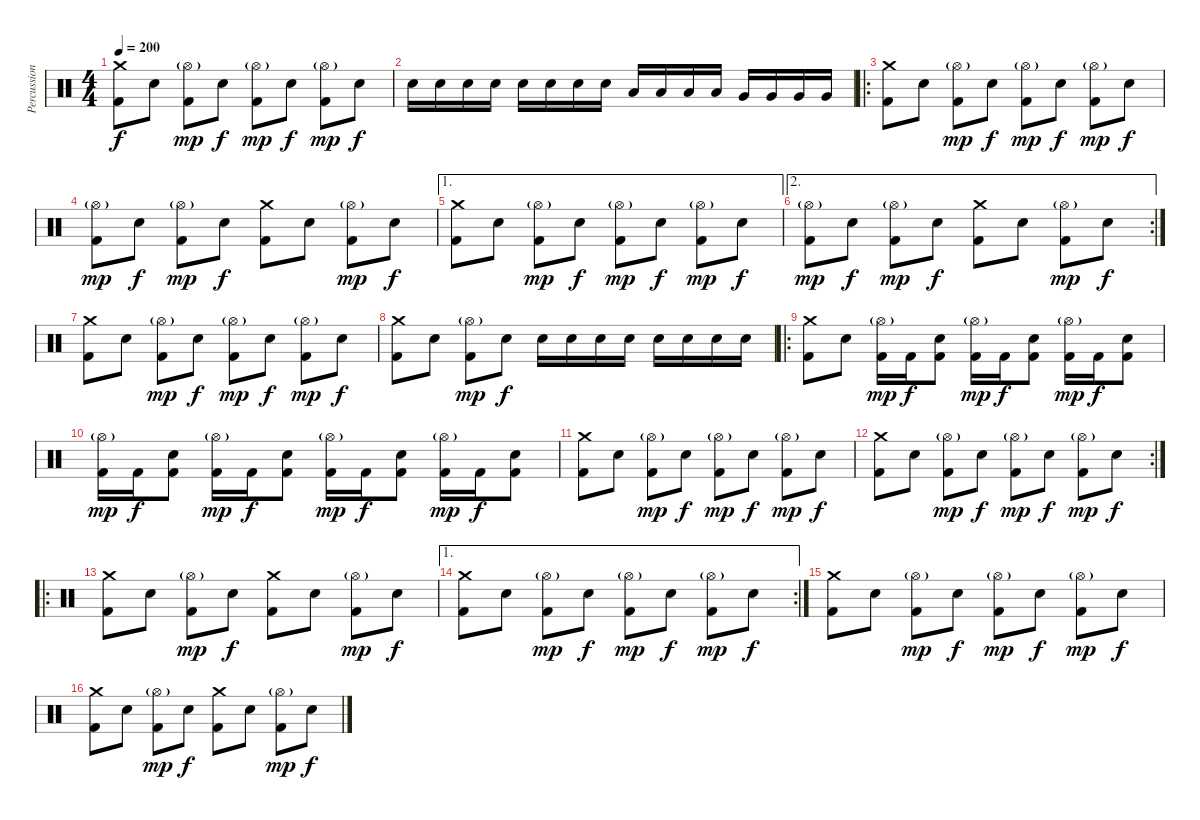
\track ("Percussion" "Percussion") {instrument percussion}
\staff {score}
\articulation defaults
\ts (4 4)
\tempo 200
\clef neutral
\ks c
("Crash medium (hit)" "Kick (hit) 2").8{dy f} "Electric Snare (hit)".8 ("Hi-Hat (open)"{g} "Kick (hit) 2").8{dy mp} "Electric Snare (hit)".8{dy f} ("Hi-Hat (open)"{g} "Kick (hit) 2").8{dy mp} "Electric Snare (hit)".8{dy f} ("Hi-Hat (open)"{g} "Kick (hit) 2").8{dy mp} "Electric Snare (hit)".8{dy f} |
"Electric Snare (hit)".16 "Electric Snare (hit)".16 "Electric Snare (hit)".16 "Electric Snare (hit)".16 "Electric Snare (hit)".16 "Electric Snare (hit)".16 "Electric Snare (hit)".16 "Electric Snare (hit)".16 "Low Tom (hit)".16 "Low Tom (hit)".16 "Low Tom (hit)".16 "Low Tom (hit)".16 "Very Low Tom (hit)".16 "Very Low Tom (hit)".16 "Very Low Tom (hit)".16 "Very Low Tom (hit)".16 |
\ro
("Crash medium (hit)" "Kick (hit) 2").8 "Electric Snare (hit)".8 ("Hi-Hat (open)"{g} "Kick (hit) 2").8{dy mp} "Electric Snare (hit)".8{dy f} ("Hi-Hat (open)"{g} "Kick (hit) 2").8{dy mp} "Electric Snare (hit)".8{dy f} ("Hi-Hat (open)"{g} "Kick (hit) 2").8{dy mp} "Electric Snare (hit)".8{dy f} |
("Hi-Hat (open)"{g} "Kick (hit) 2").8{dy mp} "Electric Snare (hit)".8{dy f} ("Hi-Hat (open)"{g} "Kick (hit) 2").8{dy mp} "Electric Snare (hit)".8{dy f} ("Crash medium (hit)" "Kick (hit) 2").8 "Electric Snare (hit)".8 ("Hi-Hat (open)"{g} "Kick (hit) 2").8{dy mp} "Electric Snare (hit)".8{dy f} |
\ae 1
("Crash medium (hit)" "Kick (hit) 2").8 "Electric Snare (hit)".8 ("Hi-Hat (open)"{g} "Kick (hit) 2").8{dy mp} "Electric Snare (hit)".8{dy f} ("Hi-Hat (open)"{g} "Kick (hit) 2").8{dy mp} "Electric Snare (hit)".8{dy f} ("Hi-Hat (open)"{g} "Kick (hit) 2").8{dy mp} "Electric Snare (hit)".8{dy f} |
\ae 2
\rc 2
("Hi-Hat (open)"{g} "Kick (hit) 2").8{dy mp} "Electric Snare (hit)".8{dy f} ("Hi-Hat (open)"{g} "Kick (hit) 2").8{dy mp} "Electric Snare (hit)".8{dy f} ("Crash medium (hit)" "Kick (hit) 2").8 "Electric Snare (hit)".8 ("Hi-Hat (open)"{g} "Kick (hit) 2").8{dy mp} "Electric Snare (hit)".8{dy f} |
("Crash medium (hit)" "Kick (hit) 2").8 "Electric Snare (hit)".8 ("Hi-Hat (open)"{g} "Kick (hit) 2").8{dy mp} "Electric Snare (hit)".8{dy f} ("Hi-Hat (open)"{g} "Kick (hit) 2").8{dy mp} "Electric Snare (hit)".8{dy f} ("Hi-Hat (open)"{g} "Kick (hit) 2").8{dy mp} "Electric Snare (hit)".8{dy f} |
("Crash medium (hit)" "Kick (hit) 2").8 "Electric Snare (hit)".8 ("Hi-Hat (open)"{g} "Kick (hit) 2").8{dy mp} "Electric Snare (hit)".8{dy f} "Electric Snare (hit)".16 "Electric Snare (hit)".16 "Electric Snare (hit)".16 "Electric Snare (hit)".16 "Electric Snare (hit)".16 "Electric Snare (hit)".16 "Electric Snare (hit)".16 "Electric Snare (hit)".16 |
\ro
("Crash medium (hit)" "Kick (hit) 2").8 "Electric Snare (hit)".8 ("Hi-Hat (open)"{g} "Kick (hit) 2").16{dy mp} "Kick (hit) 2".16{dy f} ("Electric Snare (hit)" "Kick (hit) 2").8 ("Hi-Hat (open)"{g} "Kick (hit) 2").16{dy mp} "Kick (hit) 2".16{dy f} ("Electric Snare (hit)" "Kick (hit) 2").8 ("Hi-Hat (open)"{g} "Kick (hit) 2").16{dy mp} "Kick (hit) 2".16{dy f} ("Electric Snare (hit)" "Kick (hit) 2").8 |
("Hi-Hat (open)"{g} "Kick (hit) 2").16{dy mp} "Kick (hit) 2".16{dy f} ("Electric Snare (hit)" "Kick (hit) 2").8 ("Hi-Hat (open)"{g} "Kick (hit) 2").16{dy mp} "Kick (hit) 2".16{dy f} ("Electric Snare (hit)" "Kick (hit) 2").8 ("Hi-Hat (open)"{g} "Kick (hit) 2").16{dy mp} "Kick (hit) 2".16{dy f} ("Electric Snare (hit)" "Kick (hit) 2").8 ("Hi-Hat (open)"{g} "Kick (hit) 2").16{dy mp} "Kick (hit) 2".16{dy f} ("Electric Snare (hit)" "Kick (hit) 2").8 |
("Crash medium (hit)" "Kick (hit) 2").8 "Electric Snare (hit)".8 ("Hi-Hat (open)"{g} "Kick (hit) 2").8{dy mp} "Electric Snare (hit)".8{dy f} ("Hi-Hat (open)"{g} "Kick (hit) 2").8{dy mp} "Electric Snare (hit)".8{dy f} ("Hi-Hat (open)"{g} "Kick (hit) 2").8{dy mp} "Electric Snare (hit)".8{dy f} |
\rc 2
("Crash medium (hit)" "Kick (hit) 2").8 "Electric Snare (hit)".8 ("Hi-Hat (open)"{g} "Kick (hit) 2").8{dy mp} "Electric Snare (hit)".8{dy f} ("Hi-Hat (open)"{g} "Kick (hit) 2").8{dy mp} "Electric Snare (hit)".8{dy f} ("Hi-Hat (open)"{g} "Kick (hit) 2").8{dy mp} "Electric Snare (hit)".8{dy f} |
\ro
("Crash medium (hit)" "Kick (hit) 2").8 "Electric Snare (hit)".8 ("Hi-Hat (open)"{g} "Kick (hit) 2").8{dy mp} "Electric Snare (hit)".8{dy f} ("Crash medium (hit)" "Kick (hit) 2").8 "Electric Snare (hit)".8 ("Hi-Hat (open)"{g} "Kick (hit) 2").8{dy mp} "Electric Snare (hit)".8{dy f} |
\ae 1
\rc 2
("Crash medium (hit)" "Kick (hit) 2").8 "Electric Snare (hit)".8 ("Hi-Hat (open)"{g} "Kick (hit) 2").8{dy mp} "Electric Snare (hit)".8{dy f} ("Hi-Hat (open)"{g} "Kick (hit) 2").8{dy mp} "Electric Snare (hit)".8{dy f} ("Hi-Hat (open)"{g} "Kick (hit) 2").8{dy mp} "Electric Snare (hit)".8{dy f} |
("Crash medium (hit)" "Kick (hit) 2").8 "Electric Snare (hit)".8 ("Hi-Hat (open)"{g} "Kick (hit) 2").8{dy mp} "Electric Snare (hit)".8{dy f} ("Hi-Hat (open)"{g} "Kick (hit) 2").8{dy mp} "Electric Snare (hit)".8{dy f} ("Hi-Hat (open)"{g} "Kick (hit) 2").8{dy mp} "Electric Snare (hit)".8{dy f} |
("Crash medium (hit)" "Kick (hit) 2").8 "Electric Snare (hit)".8 ("Hi-Hat (open)"{g} "Kick (hit) 2").8{dy mp} "Electric Snare (hit)".8{dy f} ("Crash medium (hit)" "Kick (hit) 2").8 "Electric Snare (hit)".8 ("Hi-Hat (open)"{g} "Kick (hit) 2").8{dy mp} "Electric Snare (hit)".8{dy f}
